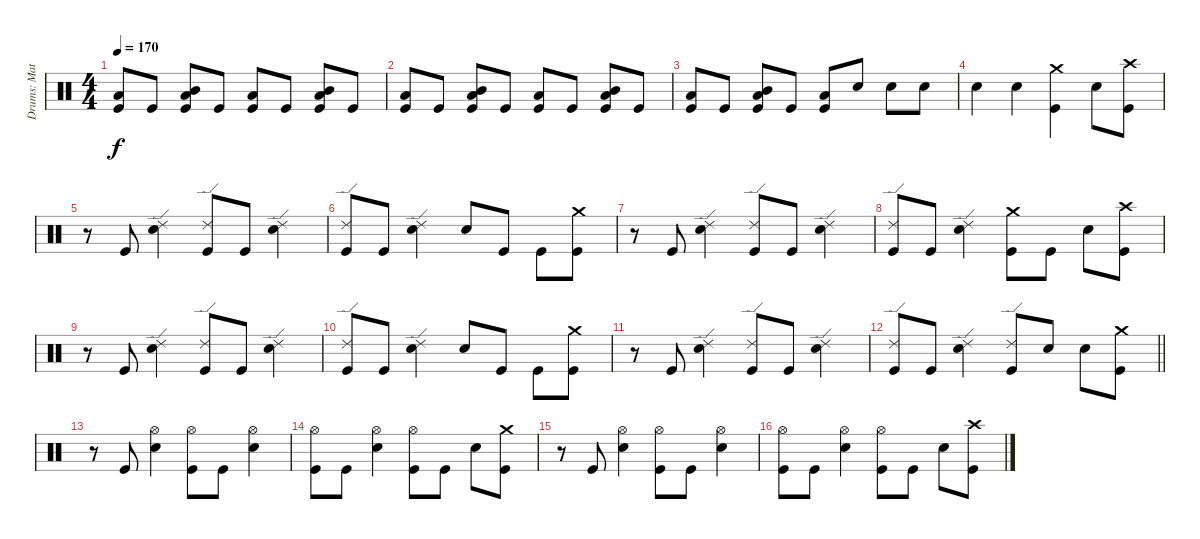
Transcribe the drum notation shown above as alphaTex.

\track ("Drums: Matt" "Drums: Mat") {instrument percussion}
\staff {score}
\articulation defaults
\ts (4 4)
\tempo 170
\clef neutral
\ks c
("Low Floor Tom (hit)" "Kick (hit)").8{dy f} "Kick (hit)".8 ("Kick (hit)" "Mid Tom (hit)" "Low Floor Tom (hit)").8 "Kick (hit)".8 ("Low Floor Tom (hit)" "Kick (hit)").8 "Kick (hit)".8 ("Mid Tom (hit)" "Kick (hit)" "Low Floor Tom (hit)").8 "Kick (hit)".8 |
("Kick (hit)" "Low Floor Tom (hit)").8 "Kick (hit)".8 ("Mid Tom (hit)" "Low Floor Tom (hit)" "Kick (hit)").8 "Kick (hit)".8 ("Kick (hit)" "Low Floor Tom (hit)").8 "Kick (hit)".8 ("Kick (hit)" "Low Floor Tom (hit)" "Mid Tom (hit)").8 "Kick (hit)".8 |
("Low Floor Tom (hit)" "Kick (hit)").8 "Kick (hit)".8 ("Mid Tom (hit)" "Low Floor Tom (hit)" "Kick (hit)").8 "Kick (hit)".8 ("Low Floor Tom (hit)" "Kick (hit)").8 "Snare (hit) 2".8 "Snare (hit) 2".8 "Snare (hit) 2".8 |
"Snare (hit) 2".4 "Snare (hit) 2".4 ("Kick (hit)" "Crash medium (hit)").4 "Snare (hit) 2".8 ("Crash high (hit)" "Kick (hit)").8 |
r.8 "Kick (hit)".8 ("Ride (edge) 2" "Snare (hit) 2").4 ("Kick (hit)" "Ride (edge) 2").8 "Kick (hit)".8 ("Ride (edge) 2" "Snare (hit) 2").4 |
("Kick (hit)" "Ride (edge) 2").8 "Kick (hit)".8 ("Ride (edge) 2" "Snare (hit) 2").4 "Snare (hit) 2".8 "Kick (hit)".8 "Kick (hit)".8 ("Crash medium (hit)" "Kick (hit)").8 |
r.8 "Kick (hit)".8 ("Ride (edge) 2" "Snare (hit) 2").4 ("Ride (edge) 2" "Kick (hit)").8 "Kick (hit)".8 ("Ride (edge) 2" "Snare (hit) 2").4 |
("Kick (hit)" "Ride (edge) 2").8 "Kick (hit)".8 ("Snare (hit) 2" "Ride (edge) 2").4 ("Crash medium (hit)" "Kick (hit)").8 "Kick (hit)".8 "Snare (hit) 2".8 ("Crash high (hit)" "Kick (hit)").8 |
r.8 "Kick (hit)".8 ("Snare (hit) 2" "Ride (edge) 2").4 ("Ride (edge) 2" "Kick (hit)").8 "Kick (hit)".8 ("Ride (edge) 2" "Snare (hit) 2").4 |
("Kick (hit)" "Ride (edge) 2").8 "Kick (hit)".8 ("Snare (hit) 2" "Ride (edge) 2").4 "Snare (hit) 2".8 "Kick (hit)".8 "Kick (hit)".8 ("Crash medium (hit)" "Kick (hit)").8 |
r.8 "Kick (hit)".8 ("Snare (hit) 2" "Ride (edge) 2").4 ("Ride (edge) 2" "Kick (hit)").8 "Kick (hit)".8 ("Ride (edge) 2" "Snare (hit) 2").4 |
\barLineRight lightlight
("Kick (hit)" "Ride (edge) 2").8 "Kick (hit)".8 ("Snare (hit) 2" "Ride (edge) 2").4 ("Ride (edge) 2" "Kick (hit)").8 "Snare (hit) 2".8 "Snare (hit) 2".8 ("Kick (hit)" "Crash medium (hit)").8 |
r.8 "Kick (hit)".8 ("Snare (hit) 2" "Hi-Hat (open)").4 ("Hi-Hat (open)" "Kick (hit)").8 "Kick (hit)".8 ("Snare (hit) 2" "Hi-Hat (open)").4 |
("Kick (hit)" "Hi-Hat (open)").8 "Kick (hit)".8 ("Hi-Hat (open)" "Snare (hit) 2").4 ("Hi-Hat (open)" "Kick (hit)").8 "Kick (hit)".8 "Snare (hit) 2".8 ("Kick (hit)" "Crash medium (hit)").8 |
r.8 "Kick (hit)".8 ("Snare (hit) 2" "Hi-Hat (open)").4 ("Hi-Hat (open)" "Kick (hit)").8 "Kick (hit)".8 ("Snare (hit) 2" "Hi-Hat (open)").4 |
("Hi-Hat (open)" "Kick (hit)").8 "Kick (hit)".8 ("Hi-Hat (open)" "Snare (hit) 2").4 ("Kick (hit)" "Hi-Hat (open)").8 "Kick (hit)".8 "Snare (hit) 2".8 ("Kick (hit)" "Crash high (hit)").8
